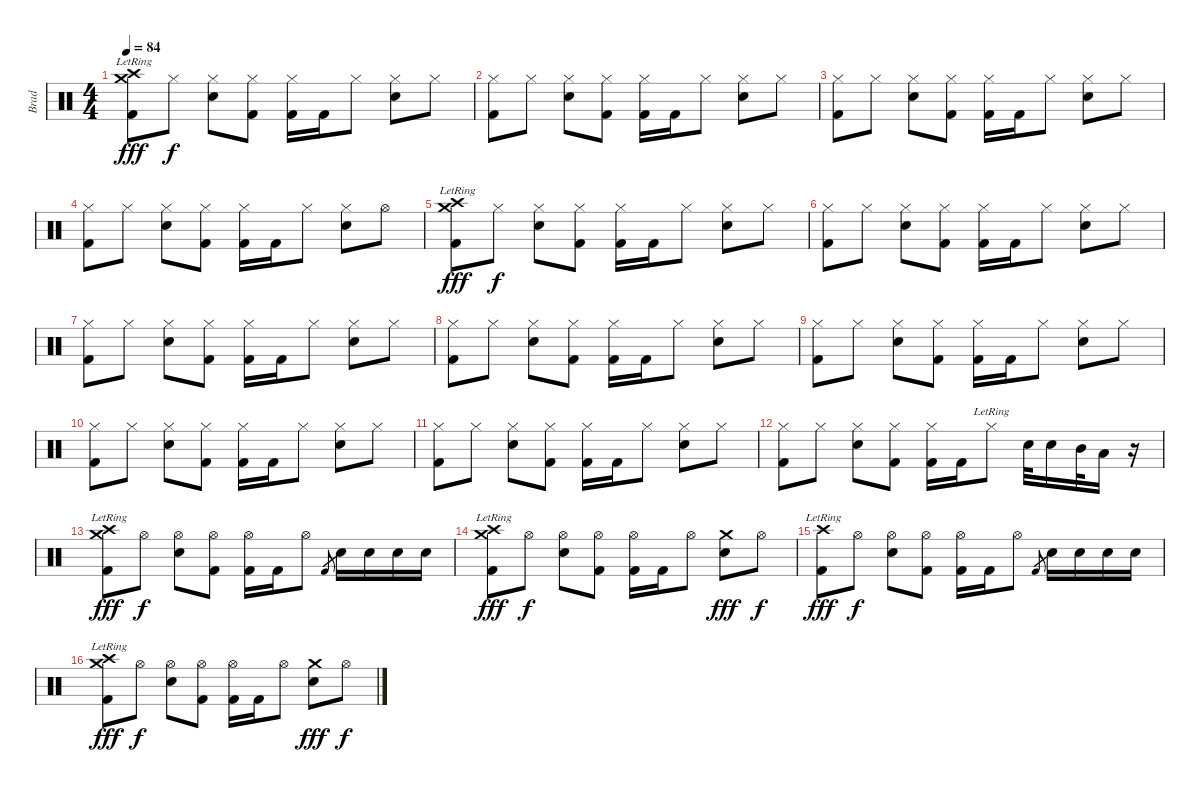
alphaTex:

\track ("Brad" "Brad") {instrument percussion}
\staff {score}
\articulation defaults
\ts (4 4)
\tempo 84
\clef neutral
\ks c
("Crash high (hit)"{lr} "Crash medium (hit)"{lr} "Kick (hit) 2").8{dy fff} "Hi-Hat (closed)".8{dy f} ("Hi-Hat (closed)" "Electric Snare (hit)").8 ("Hi-Hat (closed)" "Kick (hit) 2").8 ("Hi-Hat (closed)" "Kick (hit) 2").16 "Kick (hit) 2".16 "Hi-Hat (closed)".8 ("Hi-Hat (closed)" "Electric Snare (hit)").8 "Hi-Hat (closed)".8 |
("Hi-Hat (closed)" "Kick (hit) 2").8 "Hi-Hat (closed)".8 ("Hi-Hat (closed)" "Electric Snare (hit)").8 ("Hi-Hat (closed)" "Kick (hit) 2").8 ("Hi-Hat (closed)" "Kick (hit) 2").16 "Kick (hit) 2".16 "Hi-Hat (closed)".8 ("Hi-Hat (closed)" "Electric Snare (hit)").8 "Hi-Hat (closed)".8 |
("Hi-Hat (closed)" "Kick (hit) 2").8 "Hi-Hat (closed)".8 ("Hi-Hat (closed)" "Electric Snare (hit)").8 ("Hi-Hat (closed)" "Kick (hit) 2").8 ("Hi-Hat (closed)" "Kick (hit) 2").16 "Kick (hit) 2".16 "Hi-Hat (closed)".8 ("Hi-Hat (closed)" "Electric Snare (hit)").8 "Hi-Hat (closed)".8 |
("Hi-Hat (closed)" "Kick (hit) 2").8 "Hi-Hat (closed)".8 ("Hi-Hat (closed)" "Electric Snare (hit)").8 ("Hi-Hat (closed)" "Kick (hit) 2").8 ("Hi-Hat (closed)" "Kick (hit) 2").16 "Kick (hit) 2".16 "Hi-Hat (closed)".8 ("Hi-Hat (closed)" "Electric Snare (hit)").8 "Hi-Hat (open)".8 |
("Crash high (hit)"{lr} "Crash medium (hit)"{lr} "Kick (hit) 2").8{dy fff} "Hi-Hat (closed)".8{dy f} ("Hi-Hat (closed)" "Electric Snare (hit)").8 ("Hi-Hat (closed)" "Kick (hit) 2").8 ("Hi-Hat (closed)" "Kick (hit) 2").16 "Kick (hit) 2".16 "Hi-Hat (closed)".8 ("Hi-Hat (closed)" "Electric Snare (hit)").8 "Hi-Hat (closed)".8 |
("Hi-Hat (closed)" "Kick (hit) 2").8 "Hi-Hat (closed)".8 ("Hi-Hat (closed)" "Electric Snare (hit)").8 ("Hi-Hat (closed)" "Kick (hit) 2").8 ("Hi-Hat (closed)" "Kick (hit) 2").16 "Kick (hit) 2".16 "Hi-Hat (closed)".8 ("Hi-Hat (closed)" "Electric Snare (hit)").8 "Hi-Hat (closed)".8 |
("Hi-Hat (closed)" "Kick (hit) 2").8 "Hi-Hat (closed)".8 ("Hi-Hat (closed)" "Electric Snare (hit)").8 ("Hi-Hat (closed)" "Kick (hit) 2").8 ("Hi-Hat (closed)" "Kick (hit) 2").16 "Kick (hit) 2".16 "Hi-Hat (closed)".8 ("Hi-Hat (closed)" "Electric Snare (hit)").8 "Hi-Hat (closed)".8 |
("Hi-Hat (closed)" "Kick (hit) 2").8 "Hi-Hat (closed)".8 ("Hi-Hat (closed)" "Electric Snare (hit)").8 ("Hi-Hat (closed)" "Kick (hit) 2").8 ("Hi-Hat (closed)" "Kick (hit) 2").16 "Kick (hit) 2".16 "Hi-Hat (closed)".8 ("Hi-Hat (closed)" "Electric Snare (hit)").8 "Hi-Hat (closed)".8 |
("Hi-Hat (closed)" "Kick (hit) 2").8 "Hi-Hat (closed)".8 ("Hi-Hat (closed)" "Electric Snare (hit)").8 ("Hi-Hat (closed)" "Kick (hit) 2").8 ("Hi-Hat (closed)" "Kick (hit) 2").16 "Kick (hit) 2".16 "Hi-Hat (closed)".8 ("Hi-Hat (closed)" "Electric Snare (hit)").8 "Hi-Hat (closed)".8 |
("Hi-Hat (closed)" "Kick (hit) 2").8 "Hi-Hat (closed)".8 ("Hi-Hat (closed)" "Electric Snare (hit)").8 ("Hi-Hat (closed)" "Kick (hit) 2").8 ("Hi-Hat (closed)" "Kick (hit) 2").16 "Kick (hit) 2".16 "Hi-Hat (closed)".8 ("Hi-Hat (closed)" "Electric Snare (hit)").8 "Hi-Hat (closed)".8 |
("Hi-Hat (closed)" "Kick (hit) 2").8 "Hi-Hat (closed)".8 ("Hi-Hat (closed)" "Electric Snare (hit)").8 ("Hi-Hat (closed)" "Kick (hit) 2").8 ("Hi-Hat (closed)" "Kick (hit) 2").16 "Kick (hit) 2".16 "Hi-Hat (closed)".8 ("Hi-Hat (closed)" "Electric Snare (hit)").8 "Hi-Hat (closed)".8 |
("Hi-Hat (closed)" "Kick (hit) 2").8 "Hi-Hat (closed)".8 ("Hi-Hat (closed)" "Electric Snare (hit)").8 ("Hi-Hat (closed)" "Kick (hit) 2").8 ("Hi-Hat (closed)" "Kick (hit) 2").16 "Kick (hit) 2".16 "Hi-Hat (closed)"{lr}.8 "Electric Snare (hit)".32 "Electric Snare (hit)".16 "Mid Tom (hit)".32 "Low Tom (hit)".16 r.16 |
("Crash high (hit)"{lr} "Crash medium (hit)" "Kick (hit) 2").8{dy fff} "Hi-Hat (open)".8{dy f} ("Hi-Hat (open)" "Electric Snare (hit)").8 ("Hi-Hat (open)" "Kick (hit) 2").8 ("Hi-Hat (open)" "Kick (hit) 2").16 "Kick (hit) 2".16 "Hi-Hat (open)".8 "Kick (hit) 2".8{gr} "Electric Snare (hit)".16 "Electric Snare (hit)".16 "Electric Snare (hit)".16 "Electric Snare (hit)".16 |
("Crash high (hit)"{lr} "Crash medium (hit)"{lr} "Kick (hit) 2").8{dy fff} "Hi-Hat (open)".8{dy f} ("Hi-Hat (open)" "Electric Snare (hit)").8 ("Hi-Hat (open)" "Kick (hit) 2").8 ("Hi-Hat (open)" "Kick (hit) 2").16 "Kick (hit) 2".16 "Hi-Hat (open)".8 ("Crash medium (hit)" "Electric Snare (hit)").8{dy fff} "Hi-Hat (open)".8{dy f} |
("Crash high (hit)"{lr} "Kick (hit) 2").8{dy fff} "Hi-Hat (open)".8{dy f} ("Hi-Hat (open)" "Electric Snare (hit)").8 ("Hi-Hat (open)" "Kick (hit) 2").8 ("Hi-Hat (open)" "Kick (hit) 2").16 "Kick (hit) 2".16 "Hi-Hat (open)".8 "Kick (hit) 2".8{gr} "Electric Snare (hit)".16 "Electric Snare (hit)".16 "Electric Snare (hit)".16 "Electric Snare (hit)".16 |
("Crash high (hit)"{lr} "Crash medium (hit)"{lr} "Kick (hit) 2").8{dy fff} "Hi-Hat (open)".8{dy f} ("Hi-Hat (open)" "Electric Snare (hit)").8 ("Hi-Hat (open)" "Kick (hit) 2").8 ("Hi-Hat (open)" "Kick (hit) 2").16 "Kick (hit) 2".16 "Hi-Hat (open)".8 ("Crash medium (hit)" "Electric Snare (hit)").8{dy fff} "Hi-Hat (open)".8{dy f}
